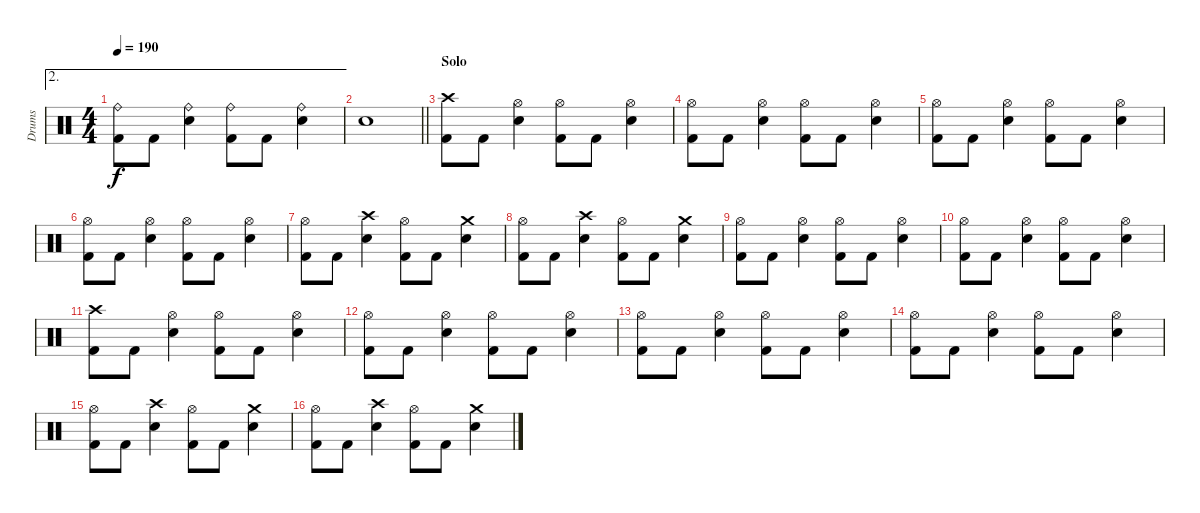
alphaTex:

\track ("Drums" "Drums") {instrument percussion}
\staff {score}
\articulation defaults
\ae 2
\ts (4 4)
\tempo 190
\clef neutral
\ks c
("Ride (bell)" "Kick (hit) 2").8{dy f} "Kick (hit) 2".8 ("Ride (bell)" "Snare (hit) 2").4 ("Ride (bell)" "Kick (hit) 2").8 "Kick (hit) 2".8 ("Ride (bell)" "Snare (hit) 2").4 |
\barLineRight lightlight "Snare (hit) 2".1
|
\section ("" "Solo")
("Crash high (hit)" "Kick (hit) 2").8 "Kick (hit) 2".8 ("Hi-Hat (open)" "Snare (hit) 2").4 ("Hi-Hat (open)" "Kick (hit) 2").8 "Kick (hit) 2".8 ("Hi-Hat (open)" "Snare (hit) 2").4 |
("Hi-Hat (open)" "Kick (hit) 2").8 "Kick (hit) 2".8 ("Hi-Hat (open)" "Snare (hit) 2").4 ("Hi-Hat (open)" "Kick (hit) 2").8 "Kick (hit) 2".8 ("Hi-Hat (open)" "Snare (hit) 2").4 |
("Hi-Hat (open)" "Kick (hit) 2").8 "Kick (hit) 2".8 ("Hi-Hat (open)" "Snare (hit) 2").4 ("Hi-Hat (open)" "Kick (hit) 2").8 "Kick (hit) 2".8 ("Hi-Hat (open)" "Snare (hit) 2").4 |
("Hi-Hat (open)" "Kick (hit) 2").8 "Kick (hit) 2".8 ("Hi-Hat (open)" "Snare (hit) 2").4 ("Hi-Hat (open)" "Kick (hit) 2").8 "Kick (hit) 2".8 ("Hi-Hat (open)" "Snare (hit) 2").4 |
("Hi-Hat (open)" "Kick (hit) 2").8 "Kick (hit) 2".8 ("Crash high (hit)" "Snare (hit) 2").4 ("Hi-Hat (open)" "Kick (hit) 2").8 "Kick (hit) 2".8 ("Crash medium (hit)" "Snare (hit) 2").4 |
("Hi-Hat (open)" "Kick (hit) 2").8 "Kick (hit) 2".8 ("Crash high (hit)" "Snare (hit) 2").4 ("Hi-Hat (open)" "Kick (hit) 2").8 "Kick (hit) 2".8 ("Crash medium (hit)" "Snare (hit) 2").4 |
("Hi-Hat (open)" "Kick (hit) 2").8 "Kick (hit) 2".8 ("Hi-Hat (open)" "Snare (hit) 2").4 ("Hi-Hat (open)" "Kick (hit) 2").8 "Kick (hit) 2".8 ("Hi-Hat (open)" "Snare (hit) 2").4 |
("Hi-Hat (open)" "Kick (hit) 2").8 "Kick (hit) 2".8 ("Hi-Hat (open)" "Snare (hit) 2").4 ("Hi-Hat (open)" "Kick (hit) 2").8 "Kick (hit) 2".8 ("Hi-Hat (open)" "Snare (hit) 2").4 |
("Crash high (hit)" "Kick (hit) 2").8 "Kick (hit) 2".8 ("Hi-Hat (open)" "Snare (hit) 2").4 ("Hi-Hat (open)" "Kick (hit) 2").8 "Kick (hit) 2".8 ("Hi-Hat (open)" "Snare (hit) 2").4 |
("Hi-Hat (open)" "Kick (hit) 2").8 "Kick (hit) 2".8 ("Hi-Hat (open)" "Snare (hit) 2").4 ("Hi-Hat (open)" "Kick (hit) 2").8 "Kick (hit) 2".8 ("Hi-Hat (open)" "Snare (hit) 2").4 |
("Hi-Hat (open)" "Kick (hit) 2").8 "Kick (hit) 2".8 ("Hi-Hat (open)" "Snare (hit) 2").4 ("Hi-Hat (open)" "Kick (hit) 2").8 "Kick (hit) 2".8 ("Hi-Hat (open)" "Snare (hit) 2").4 |
("Hi-Hat (open)" "Kick (hit) 2").8 "Kick (hit) 2".8 ("Hi-Hat (open)" "Snare (hit) 2").4 ("Hi-Hat (open)" "Kick (hit) 2").8 "Kick (hit) 2".8 ("Hi-Hat (open)" "Snare (hit) 2").4 |
("Hi-Hat (open)" "Kick (hit) 2").8 "Kick (hit) 2".8 ("Crash high (hit)" "Snare (hit) 2").4 ("Hi-Hat (open)" "Kick (hit) 2").8 "Kick (hit) 2".8 ("Crash medium (hit)" "Snare (hit) 2").4 |
("Hi-Hat (open)" "Kick (hit) 2").8 "Kick (hit) 2".8 ("Crash high (hit)" "Snare (hit) 2").4 ("Hi-Hat (open)" "Kick (hit) 2").8 "Kick (hit) 2".8 ("Crash medium (hit)" "Snare (hit) 2").4
